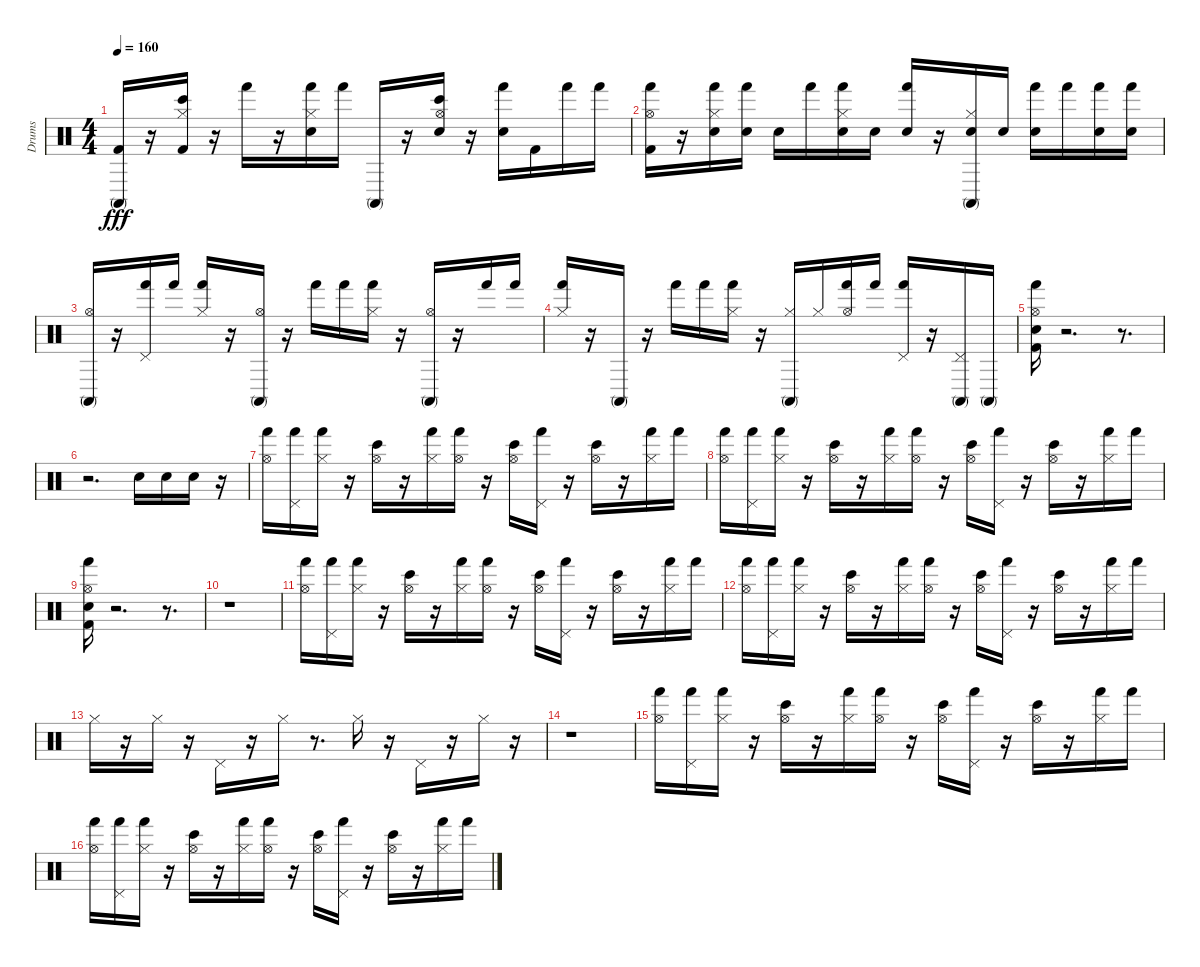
\track ("Drums" "Drums") {instrument percussion}
\staff {score}
\articulation defaults
\ts (4 4)
\tempo 160
\clef neutral
\ks c
("Conga high (mute)" "Kick (hit) 2").16{dy fff} r.16 ("Hi-Hat (closed)" "Kick (hit) 2" "Bongo High (hit)").16 r.16 "Hand (hit)".16 r.16 ("Hi-Hat (closed)" "Electric Snare (hit)" "Hand (hit)").16 "Hand (hit)".16 "Conga high (mute)".16 r.16 ("Hi-Hat (open)" "Bongo High (hit)" "Electric Snare (hit)").16 r.16 ("Hand (hit)" "Electric Snare (hit)").16 "Kick (hit) 2".16 "Hand (hit)".16 "Hand (hit)".16 |
("Hand (hit)" "Hi-Hat (open)" "Kick (hit) 2").16 r.16 ("Hi-Hat (closed)" "Electric Snare (hit)" "Hand (hit)").16 ("Electric Snare (hit)" "Hand (hit)").16 "Electric Snare (hit)".16 "Hand (hit)".16 ("Hand (hit)" "Electric Snare (hit)" "Hi-Hat (closed)").16 "Electric Snare (hit)".16 ("Electric Snare (hit)" "Hand (hit)").16 r.16 ("Hi-Hat (closed)" "Conga high (mute)" "Electric Snare (hit)").16 "Electric Snare (hit)".16 ("Hand (hit)" "Electric Snare (hit)").16 "Hand (hit)".16 ("Electric Snare (hit)" "Hand (hit)").16 ("Hand (hit)" "Electric Snare (hit)").16 |
("Hi-Hat (open)" "Conga high (mute)").16 r.16 ("Hand (hit)" "Pedal Hi-Hat (hit)").16 "Hand (hit)".16 ("Hand (hit)" "Hi-Hat (closed)").16 r.16 ("Conga high (mute)" "Hi-Hat (open)").16 r.16 "Hand (hit)".16 "Hand (hit)".16 ("Hi-Hat (closed)" "Hand (hit)").16 r.16 ("Hi-Hat (open)" "Conga high (mute)").16 r.16 "Hand (hit)".16 "Hand (hit)".16 |
("Hand (hit)" "Hi-Hat (closed)").16 r.16 "Conga high (mute)".16 r.16 "Hand (hit)".16 "Hand (hit)".16 ("Hand (hit)" "Hi-Hat (closed)").16 r.16 ("Hi-Hat (closed)" "Conga high (mute)").16 "Hi-Hat (closed)".16 ("Hand (hit)" "Hi-Hat (open)").16 "Hand (hit)".16 ("Hand (hit)" "Pedal Hi-Hat (hit)").16 r.16 ("Pedal Hi-Hat (hit)" "Conga high (mute)").16 "Conga high (mute)".16 |
("Kick (hit) 2" "Hi-Hat (open)" "Hand (hit)" "Electric Snare (hit)").16 r.2{d} r.8{d} |
r.2{d} "Snare (hit) 2".16 "Snare (hit) 2".16 "Snare (hit) 2".16 r.16 |
("Hand (hit)" "Hi-Hat (open)").16 ("Pedal Hi-Hat (hit)" "Hand (hit)").16 ("Hand (hit)" "Hi-Hat (closed)").16 r.16 ("Hi-Hat (open)" "Bongo High (hit)").16 r.16 ("Hi-Hat (closed)" "Hand (hit)").16 ("Hi-Hat (open)" "Hand (hit)").16 r.16 ("Bongo High (hit)" "Hi-Hat (open)").16 ("Hand (hit)" "Pedal Hi-Hat (hit)").16 r.16 ("Hi-Hat (open)" "Bongo High (hit)").16 r.16 ("Hi-Hat (closed)" "Hand (hit)").16 "Hand (hit)".16 |
("Hi-Hat (open)" "Hand (hit)").16 ("Pedal Hi-Hat (hit)" "Hand (hit)").16 ("Hi-Hat (closed)" "Hand (hit)").16 r.16 ("Hi-Hat (open)" "Bongo High (hit)").16 r.16 ("Hi-Hat (closed)" "Hand (hit)").16 ("Hi-Hat (open)" "Hand (hit)").16 r.16 ("Bongo High (hit)" "Hi-Hat (open)").16 ("Pedal Hi-Hat (hit)" "Hand (hit)").16 r.16 ("Bongo High (hit)" "Hi-Hat (open)").16 r.16 ("Hi-Hat (closed)" "Hand (hit)").16 "Hand (hit)".16 |
("Hand (hit)" "Electric Snare (hit)" "Kick (hit) 2" "Hi-Hat (open)").16 r.2{d} r.8{d} |
r.1 |
("Hi-Hat (open)" "Hand (hit)").16 ("Pedal Hi-Hat (hit)" "Hand (hit)").16 ("Hi-Hat (closed)" "Hand (hit)").16 r.16 ("Hi-Hat (open)" "Bongo High (hit)").16 r.16 ("Hi-Hat (closed)" "Hand (hit)").16 ("Hi-Hat (open)" "Hand (hit)").16 r.16 ("Hi-Hat (open)" "Bongo High (hit)").16 ("Pedal Hi-Hat (hit)" "Hand (hit)").16 r.16 ("Hi-Hat (open)" "Bongo High (hit)").16 r.16 ("Hi-Hat (closed)" "Hand (hit)").16 "Hand (hit)".16 |
("Hand (hit)" "Hi-Hat (open)").16 ("Pedal Hi-Hat (hit)" "Hand (hit)").16 ("Hand (hit)" "Hi-Hat (closed)").16 r.16 ("Bongo High (hit)" "Hi-Hat (open)").16 r.16 ("Hi-Hat (closed)" "Hand (hit)").16 ("Hi-Hat (open)" "Hand (hit)").16 r.16 ("Bongo High (hit)" "Hi-Hat (open)").16 ("Hand (hit)" "Pedal Hi-Hat (hit)").16 r.16 ("Bongo High (hit)" "Hi-Hat (open)").16 r.16 ("Hi-Hat (closed)" "Hand (hit)").16 "Hand (hit)".16 |
"Hi-Hat (closed)".16 r.16 "Hi-Hat (closed)".16 r.16 "Pedal Hi-Hat (hit)".16 r.16 "Hi-Hat (closed)".16 r.8{d} "Hi-Hat (closed)".16 r.16 "Pedal Hi-Hat (hit)".16 r.16 "Hi-Hat (closed)".16 r.16 |
r.1 |
("Hi-Hat (open)" "Hand (hit)").16 ("Pedal Hi-Hat (hit)" "Hand (hit)").16 ("Hi-Hat (closed)" "Hand (hit)").16 r.16 ("Hi-Hat (open)" "Bongo High (hit)").16 r.16 ("Hand (hit)" "Hi-Hat (closed)").16 ("Hi-Hat (open)" "Hand (hit)").16 r.16 ("Hi-Hat (open)" "Bongo High (hit)").16 ("Hand (hit)" "Pedal Hi-Hat (hit)").16 r.16 ("Bongo High (hit)" "Hi-Hat (open)").16 r.16 ("Hand (hit)" "Hi-Hat (closed)").16 "Hand (hit)".16 |
("Hi-Hat (open)" "Hand (hit)").16 ("Pedal Hi-Hat (hit)" "Hand (hit)").16 ("Hand (hit)" "Hi-Hat (closed)").16 r.16 ("Bongo High (hit)" "Hi-Hat (open)").16 r.16 ("Hand (hit)" "Hi-Hat (closed)").16 ("Hand (hit)" "Hi-Hat (open)").16 r.16 ("Hi-Hat (open)" "Bongo High (hit)").16 ("Pedal Hi-Hat (hit)" "Hand (hit)").16 r.16 ("Hi-Hat (open)" "Bongo High (hit)").16 r.16 ("Hi-Hat (closed)" "Hand (hit)").16 "Hand (hit)".16
